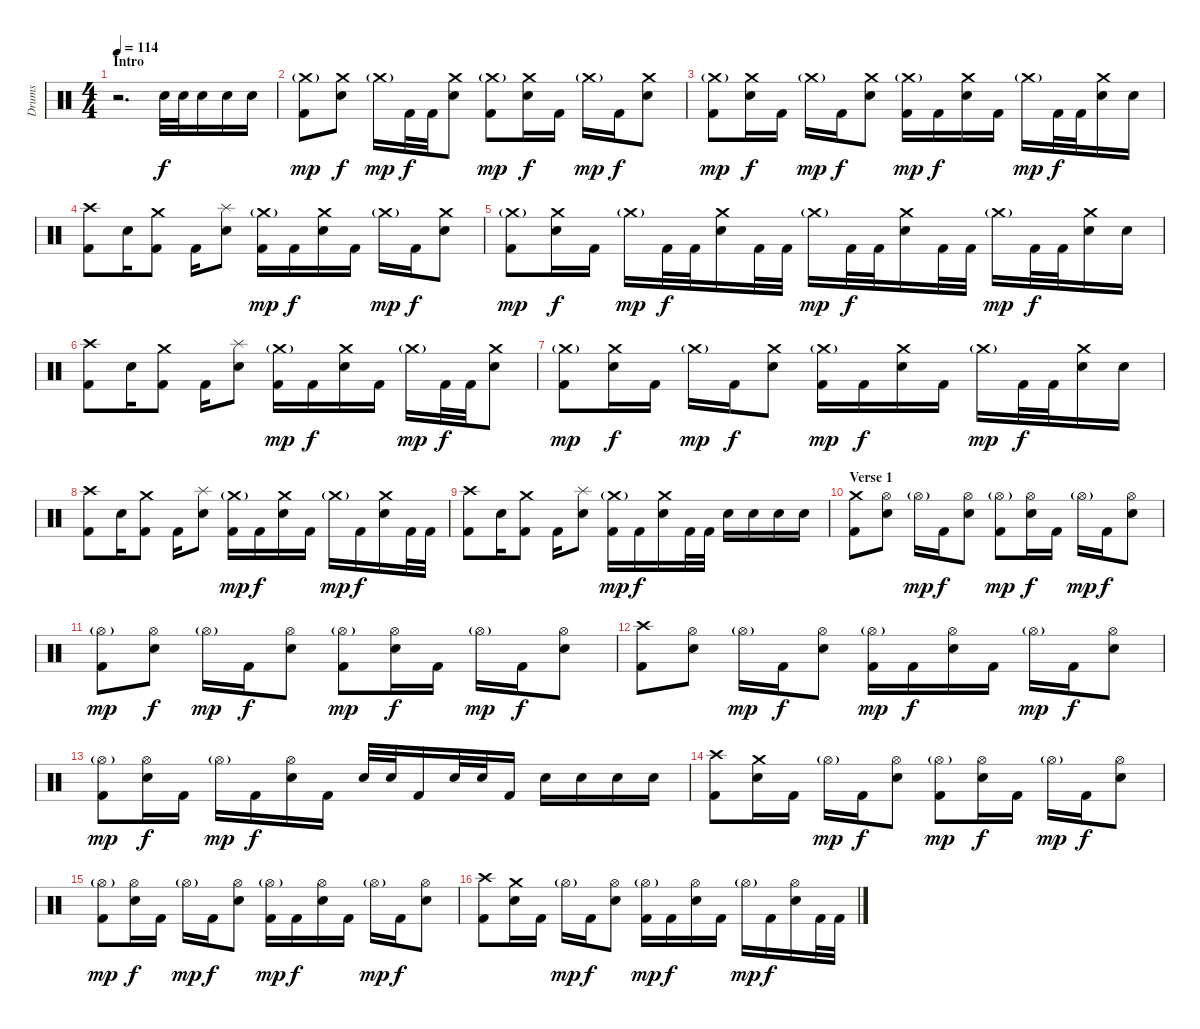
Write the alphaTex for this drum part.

\track ("Drums" "Drums") {instrument percussion}
\staff {score}
\articulation defaults
\ts (4 4)
\section ("" "Intro")
\tempo 114
\clef neutral
\ks c
r.2{d dy f} "Snare (hit) 2".32 "Snare (hit) 2".32 "Snare (hit) 2".16 "Snare (hit) 2".16 "Snare (hit) 2".16 |
("Crash medium (hit)"{g} "Kick (hit) 2").8{dy mp} ("Crash medium (hit)" "Snare (hit) 2").8{dy f} "Crash medium (hit)"{g}.16{dy mp} "Kick (hit) 2".32{dy f} "Kick (hit) 2".32 ("Crash medium (hit)" "Snare (hit) 2").8 ("Crash medium (hit)"{g} "Kick (hit) 2").8{dy mp} ("Crash medium (hit)" "Snare (hit) 2").16{dy f} "Kick (hit) 2".16 "Crash medium (hit)"{g}.16{dy mp} "Kick (hit) 2".16{dy f} ("Crash medium (hit)" "Snare (hit) 2").8 |
("Crash medium (hit)"{g} "Kick (hit) 2").8{dy mp} ("Crash medium (hit)" "Snare (hit) 2").16{dy f} "Kick (hit) 2".16 "Crash medium (hit)"{g}.16{dy mp} "Kick (hit) 2".16{dy f} ("Crash medium (hit)" "Snare (hit) 2").8 ("Crash medium (hit)"{g} "Kick (hit) 2").16{dy mp} "Kick (hit) 2".16{dy f} ("Crash medium (hit)" "Snare (hit) 2").16 "Kick (hit) 2".16 "Crash medium (hit)"{g}.16{dy mp} "Kick (hit) 2".32{dy f} "Kick (hit) 2".32 ("Crash medium (hit)" "Snare (hit) 2").16 "Snare (hit) 2".16 |
("Crash high (hit)" "Kick (hit) 2").8 "Snare (hit) 2".16 ("Crash medium (hit)" "Kick (hit) 2").8 "Kick (hit) 2".16 ("Splash (hit)" "Snare (hit) 2").8 ("Crash medium (hit)"{g} "Kick (hit) 2").16{dy mp} "Kick (hit) 2".16{dy f} ("Crash medium (hit)" "Snare (hit) 2").16 "Kick (hit) 2".16 "Crash medium (hit)"{g}.16{dy mp} "Kick (hit) 2".16{dy f} ("Crash medium (hit)" "Snare (hit) 2").8 |
("Crash medium (hit)"{g} "Kick (hit) 2").8{dy mp} ("Crash medium (hit)" "Snare (hit) 2").16{dy f} "Kick (hit) 2".16 "Crash medium (hit)"{g}.16{dy mp} "Kick (hit) 2".32{dy f} "Kick (hit) 2".32 ("Crash medium (hit)" "Snare (hit) 2").16 "Kick (hit) 2".32 "Kick (hit) 2".32 "Crash medium (hit)"{g}.16{dy mp} "Kick (hit) 2".32{dy f} "Kick (hit) 2".32 ("Crash medium (hit)" "Snare (hit) 2").16 "Kick (hit) 2".32 "Kick (hit) 2".32 "Crash medium (hit)"{g}.16{dy mp} "Kick (hit) 2".32{dy f} "Kick (hit) 2".32 ("Crash medium (hit)" "Snare (hit) 2").16 "Snare (hit) 2".16 |
("Crash high (hit)" "Kick (hit) 2").8 "Snare (hit) 2".16 ("Crash medium (hit)" "Kick (hit) 2").8 "Kick (hit) 2".16 ("Splash (hit)" "Snare (hit) 2").8 ("Crash medium (hit)"{g} "Kick (hit) 2").16{dy mp} "Kick (hit) 2".16{dy f} ("Crash medium (hit)" "Snare (hit) 2").16 "Kick (hit) 2".16 "Crash medium (hit)"{g}.16{dy mp} "Kick (hit) 2".32{dy f} "Kick (hit) 2".32 ("Crash medium (hit)" "Snare (hit) 2").8 |
("Crash medium (hit)"{g} "Kick (hit) 2").8{dy mp} ("Crash medium (hit)" "Snare (hit) 2").16{dy f} "Kick (hit) 2".16 "Crash medium (hit)"{g}.16{dy mp} "Kick (hit) 2".16{dy f} ("Crash medium (hit)" "Snare (hit) 2").8 ("Crash medium (hit)"{g} "Kick (hit) 2").16{dy mp} "Kick (hit) 2".16{dy f} ("Crash medium (hit)" "Snare (hit) 2").16 "Kick (hit) 2".16 "Crash medium (hit)"{g}.16{dy mp} "Kick (hit) 2".32{dy f} "Kick (hit) 2".32 ("Crash medium (hit)" "Snare (hit) 2").16 "Snare (hit) 2".16 |
("Crash high (hit)" "Kick (hit) 2").8 "Snare (hit) 2".16 ("Crash medium (hit)" "Kick (hit) 2").8 "Kick (hit) 2".16 ("Splash (hit)" "Snare (hit) 2").8 ("Crash medium (hit)"{g} "Kick (hit) 2").16{dy mp} "Kick (hit) 2".16{dy f} ("Crash medium (hit)" "Snare (hit) 2").16 "Kick (hit) 2".16 "Crash medium (hit)"{g}.16{dy mp} "Kick (hit) 2".16{dy f} ("Crash medium (hit)" "Snare (hit) 2").16 "Kick (hit) 2".32 "Kick (hit) 2".32 |
("Crash high (hit)" "Kick (hit) 2").8 "Snare (hit) 2".16 ("Crash medium (hit)" "Kick (hit) 2").8 "Kick (hit) 2".16 ("Splash (hit)" "Snare (hit) 2").8 ("Crash medium (hit)"{g} "Kick (hit) 2").16{dy mp} "Kick (hit) 2".16{dy f} ("Crash medium (hit)" "Snare (hit) 2").16 "Kick (hit) 2".32 "Kick (hit) 2".32 "Snare (hit) 2".16 "Snare (hit) 2".16 "Snare (hit) 2".16 "Snare (hit) 2".16 |
\section ("" "Verse 1")
("Crash medium (hit)" "Kick (hit) 2").8 ("Hi-Hat (open)" "Snare (hit) 2").8 "Hi-Hat (open)"{g}.16{dy mp} "Kick (hit) 2".16{dy f} ("Hi-Hat (open)" "Snare (hit) 2").8 ("Hi-Hat (open)"{g} "Kick (hit) 2").8{dy mp} ("Hi-Hat (open)" "Snare (hit) 2").16{dy f} "Kick (hit) 2".16 "Hi-Hat (open)"{g}.16{dy mp} "Kick (hit) 2".16{dy f} ("Hi-Hat (open)" "Snare (hit) 2").8 |
("Hi-Hat (open)"{g} "Kick (hit) 2").8{dy mp} ("Hi-Hat (open)" "Snare (hit) 2").8{dy f} "Hi-Hat (open)"{g}.16{dy mp} "Kick (hit) 2".16{dy f} ("Hi-Hat (open)" "Snare (hit) 2").8 ("Hi-Hat (open)"{g} "Kick (hit) 2").8{dy mp} ("Hi-Hat (open)" "Snare (hit) 2").16{dy f} "Kick (hit) 2".16 "Hi-Hat (open)"{g}.16{dy mp} "Kick (hit) 2".16{dy f} ("Hi-Hat (open)" "Snare (hit) 2").8 |
("Crash high (hit)" "Kick (hit) 2").8 ("Hi-Hat (open)" "Snare (hit) 2").8 "Hi-Hat (open)"{g}.16{dy mp} "Kick (hit) 2".16{dy f} ("Hi-Hat (open)" "Snare (hit) 2").8 ("Hi-Hat (open)"{g} "Kick (hit) 2").16{dy mp} "Kick (hit) 2".16{dy f} ("Hi-Hat (open)" "Snare (hit) 2").16 "Kick (hit) 2".16 "Hi-Hat (open)"{g}.16{dy mp} "Kick (hit) 2".16{dy f} ("Hi-Hat (open)" "Snare (hit) 2").8 |
("Hi-Hat (open)"{g} "Kick (hit) 2").8{dy mp} ("Hi-Hat (open)" "Snare (hit) 2").16{dy f} "Kick (hit) 2".16 "Hi-Hat (open)"{g}.16{dy mp} "Kick (hit) 2".16{dy f} ("Hi-Hat (open)" "Snare (hit) 2").16 "Kick (hit) 2".16 "Snare (hit) 2".32 "Snare (hit) 2".32 "Kick (hit) 2".16 "Snare (hit) 2".32 "Snare (hit) 2".32 "Kick (hit) 2".16 "Snare (hit) 2".16 "Snare (hit) 2".16 "Snare (hit) 2".16 "Snare (hit) 2".16 |
("Crash high (hit)" "Kick (hit) 2").8 ("Crash medium (hit)" "Snare (hit) 2").16 "Kick (hit) 2".16 "Hi-Hat (open)"{g}.16{dy mp} "Kick (hit) 2".16{dy f} ("Hi-Hat (open)" "Snare (hit) 2").8 ("Hi-Hat (open)"{g} "Kick (hit) 2").8{dy mp} ("Hi-Hat (open)" "Snare (hit) 2").16{dy f} "Kick (hit) 2".16 "Hi-Hat (open)"{g}.16{dy mp} "Kick (hit) 2".16{dy f} ("Hi-Hat (open)" "Snare (hit) 2").8 |
("Hi-Hat (open)"{g} "Kick (hit) 2").8{dy mp} ("Hi-Hat (open)" "Snare (hit) 2").16{dy f} "Kick (hit) 2".16 "Hi-Hat (open)"{g}.16{dy mp} "Kick (hit) 2".16{dy f} ("Hi-Hat (open)" "Snare (hit) 2").8 ("Hi-Hat (open)"{g} "Kick (hit) 2").16{dy mp} "Kick (hit) 2".16{dy f} ("Hi-Hat (open)" "Snare (hit) 2").16 "Kick (hit) 2".16 "Hi-Hat (open)"{g}.16{dy mp} "Kick (hit) 2".16{dy f} ("Hi-Hat (open)" "Snare (hit) 2").8 |
("Crash high (hit)" "Kick (hit) 2").8 ("Crash medium (hit)" "Snare (hit) 2").16 "Kick (hit) 2".16 "Hi-Hat (open)"{g}.16{dy mp} "Kick (hit) 2".16{dy f} ("Hi-Hat (open)" "Snare (hit) 2").8 ("Hi-Hat (open)"{g} "Kick (hit) 2").16{dy mp} "Kick (hit) 2".16{dy f} ("Hi-Hat (open)" "Snare (hit) 2").16 "Kick (hit) 2".16 "Hi-Hat (open)"{g}.16{dy mp} "Kick (hit) 2".16{dy f} ("Hi-Hat (open)" "Snare (hit) 2").16 "Kick (hit) 2".32 "Kick (hit) 2".32
